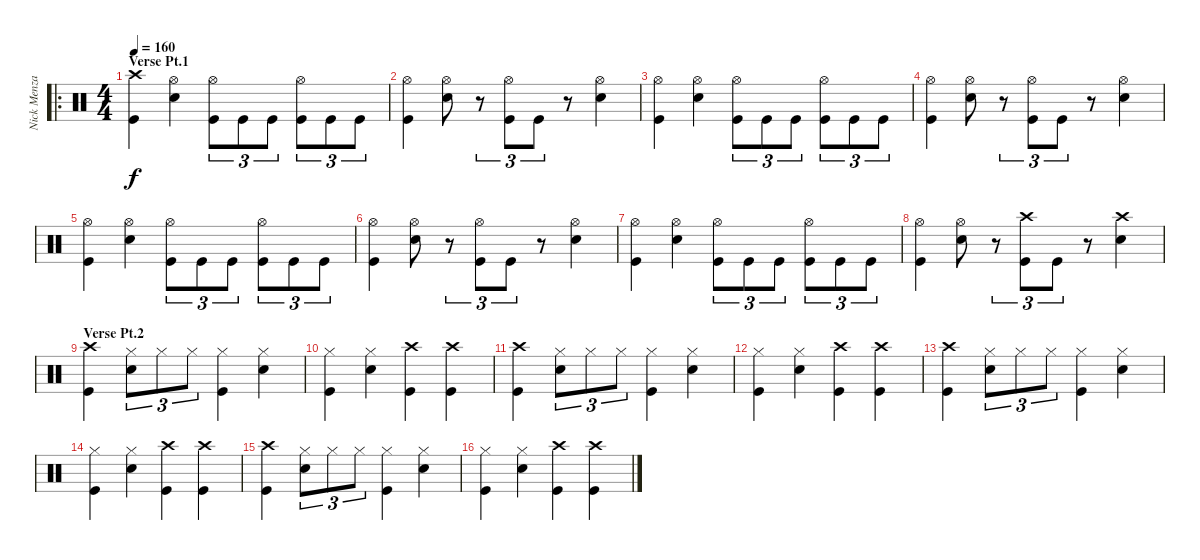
\track ("Nick Menza" "Nick Menza") {instrument percussion}
\staff {score}
\articulation defaults
\ro
\ts (4 4)
\section ("" "Verse Pt.1")
\tempo 160
\clef neutral
\ks c
("Crash high (hit)" "Kick (hit)").4{dy f} ("Hi-Hat (open)" "Snare (hit) 2").4 ("Hi-Hat (open)" "Kick (hit)").8{tu (3 2)} "Kick (hit)".8{tu (3 2)} "Kick (hit)".8{tu (3 2)} ("Hi-Hat (open)" "Kick (hit)").8{tu (3 2)} "Kick (hit)".8{tu (3 2)} "Kick (hit)".8{tu (3 2)} |
("Hi-Hat (open)" "Kick (hit)").4 ("Hi-Hat (open)" "Snare (hit) 2").8 r.8{tu (3 2)} ("Hi-Hat (open)" "Kick (hit)").8{tu (3 2)} "Kick (hit)".8{tu (3 2)} r.8 ("Hi-Hat (open)" "Snare (hit) 2").4 |
("Hi-Hat (open)" "Kick (hit)").4 ("Hi-Hat (open)" "Snare (hit) 2").4 ("Hi-Hat (open)" "Kick (hit)").8{tu (3 2)} "Kick (hit)".8{tu (3 2)} "Kick (hit)".8{tu (3 2)} ("Hi-Hat (open)" "Kick (hit)").8{tu (3 2)} "Kick (hit)".8{tu (3 2)} "Kick (hit)".8{tu (3 2)} |
("Hi-Hat (open)" "Kick (hit)").4 ("Hi-Hat (open)" "Snare (hit) 2").8 r.8{tu (3 2)} ("Hi-Hat (open)" "Kick (hit)").8{tu (3 2)} "Kick (hit)".8{tu (3 2)} r.8 ("Hi-Hat (open)" "Snare (hit) 2").4 |
("Hi-Hat (open)" "Kick (hit)").4 ("Hi-Hat (open)" "Snare (hit) 2").4 ("Hi-Hat (open)" "Kick (hit)").8{tu (3 2)} "Kick (hit)".8{tu (3 2)} "Kick (hit)".8{tu (3 2)} ("Hi-Hat (open)" "Kick (hit)").8{tu (3 2)} "Kick (hit)".8{tu (3 2)} "Kick (hit)".8{tu (3 2)} |
("Hi-Hat (open)" "Kick (hit)").4 ("Hi-Hat (open)" "Snare (hit) 2").8 r.8{tu (3 2)} ("Hi-Hat (open)" "Kick (hit)").8{tu (3 2)} "Kick (hit)".8{tu (3 2)} r.8 ("Hi-Hat (open)" "Snare (hit) 2").4 |
("Hi-Hat (open)" "Kick (hit)").4 ("Hi-Hat (open)" "Snare (hit) 2").4 ("Hi-Hat (open)" "Kick (hit)").8{tu (3 2)} "Kick (hit)".8{tu (3 2)} "Kick (hit)".8{tu (3 2)} ("Hi-Hat (open)" "Kick (hit)").8{tu (3 2)} "Kick (hit)".8{tu (3 2)} "Kick (hit)".8{tu (3 2)} |
("Hi-Hat (open)" "Kick (hit)").4 ("Hi-Hat (open)" "Snare (hit) 2").8 r.8{tu (3 2)} ("Crash high (hit)" "Kick (hit)").8{tu (3 2)} "Kick (hit)".8{tu (3 2)} r.8 ("Crash high (hit)" "Snare (hit) 2").4 |
\section ("" "Verse Pt.2")
("Crash high (hit)" "Kick (hit)").4 ("Hi-Hat (closed)" "Snare (hit) 2").8{tu (3 2)} "Hi-Hat (closed)".8{tu (3 2)} "Hi-Hat (closed)".8{tu (3 2)} ("Hi-Hat (closed)" "Kick (hit)").4 ("Hi-Hat (closed)" "Snare (hit) 2").4 |
("Hi-Hat (closed)" "Kick (hit)").4 ("Hi-Hat (closed)" "Snare (hit) 2").4 ("Crash high (hit)" "Kick (hit)").4 ("Crash high (hit)" "Kick (hit)").4 |
("Crash high (hit)" "Kick (hit)").4 ("Hi-Hat (closed)" "Snare (hit) 2").8{tu (3 2)} "Hi-Hat (closed)".8{tu (3 2)} "Hi-Hat (closed)".8{tu (3 2)} ("Hi-Hat (closed)" "Kick (hit)").4 ("Hi-Hat (closed)" "Snare (hit) 2").4 |
("Hi-Hat (closed)" "Kick (hit)").4 ("Hi-Hat (closed)" "Snare (hit) 2").4 ("Crash high (hit)" "Kick (hit)").4 ("Crash high (hit)" "Kick (hit)").4 |
("Crash high (hit)" "Kick (hit)").4 ("Hi-Hat (closed)" "Snare (hit) 2").8{tu (3 2)} "Hi-Hat (closed)".8{tu (3 2)} "Hi-Hat (closed)".8{tu (3 2)} ("Hi-Hat (closed)" "Kick (hit)").4 ("Hi-Hat (closed)" "Snare (hit) 2").4 |
("Hi-Hat (closed)" "Kick (hit)").4 ("Hi-Hat (closed)" "Snare (hit) 2").4 ("Crash high (hit)" "Kick (hit)").4 ("Crash high (hit)" "Kick (hit)").4 |
("Crash high (hit)" "Kick (hit)").4 ("Hi-Hat (closed)" "Snare (hit) 2").8{tu (3 2)} "Hi-Hat (closed)".8{tu (3 2)} "Hi-Hat (closed)".8{tu (3 2)} ("Hi-Hat (closed)" "Kick (hit)").4 ("Hi-Hat (closed)" "Snare (hit) 2").4 |
("Hi-Hat (closed)" "Kick (hit)").4 ("Hi-Hat (closed)" "Snare (hit) 2").4 ("Crash high (hit)" "Kick (hit)").4 ("Crash high (hit)" "Kick (hit)").4
